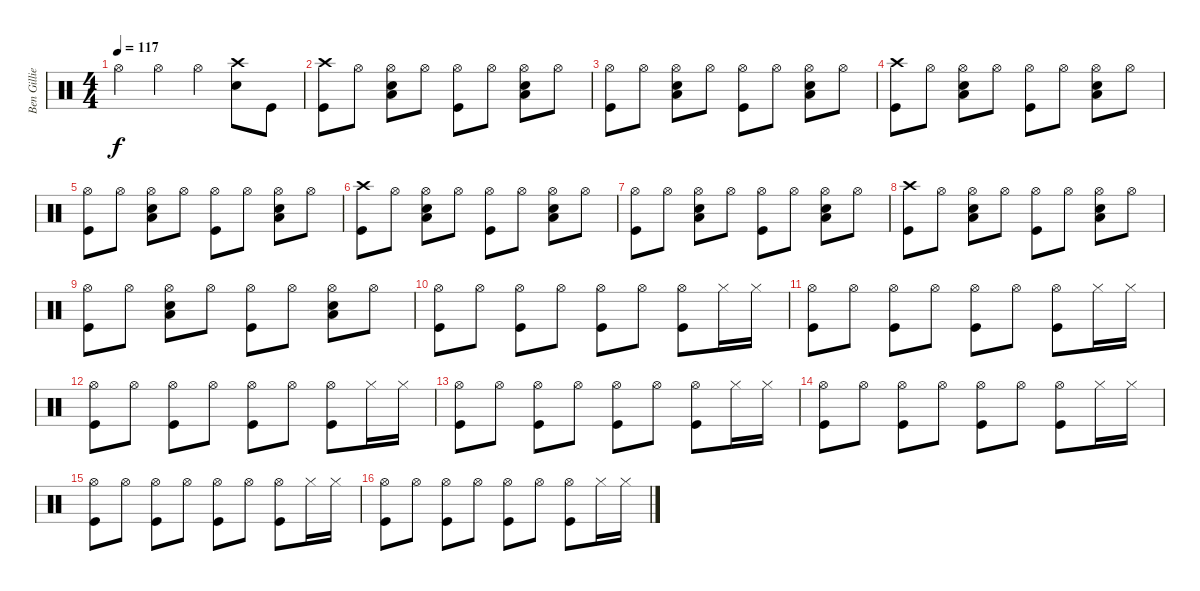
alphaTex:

\track ("Ben Gillies" "Ben Gillie") {instrument percussion}
\staff {score}
\articulation defaults
\ts (4 4)
\tempo 117
\clef neutral
\ks c "Hi-Hat (open)".4{dy f} "Hi-Hat (open)".4 "Hi-Hat (open)".4
("Snare (hit) 2" "Crash high (hit)").8 "Kick (hit)".8 |
("Crash high (hit)" "Kick (hit)").8 "Hi-Hat (open)".8 ("Snare (hit) 2" "Hi-Hat (open)" "Low Tom (hit)").8 "Hi-Hat (open)".8 ("Hi-Hat (open)" "Kick (hit)").8 "Hi-Hat (open)".8 ("Snare (hit) 2" "Hi-Hat (open)" "Low Tom (hit)").8 "Hi-Hat (open)".8 |
("Hi-Hat (open)" "Kick (hit)").8 "Hi-Hat (open)".8 ("Snare (hit) 2" "Hi-Hat (open)" "Low Tom (hit)").8 "Hi-Hat (open)".8 ("Hi-Hat (open)" "Kick (hit)").8 "Hi-Hat (open)".8 ("Snare (hit) 2" "Hi-Hat (open)" "Low Tom (hit)").8 "Hi-Hat (open)".8 |
("Crash high (hit)" "Kick (hit)").8 "Hi-Hat (open)".8 ("Snare (hit) 2" "Hi-Hat (open)" "Low Tom (hit)").8 "Hi-Hat (open)".8 ("Hi-Hat (open)" "Kick (hit)").8 "Hi-Hat (open)".8 ("Snare (hit) 2" "Hi-Hat (open)" "Low Tom (hit)").8 "Hi-Hat (open)".8 |
("Hi-Hat (open)" "Kick (hit)").8 "Hi-Hat (open)".8 ("Snare (hit) 2" "Hi-Hat (open)" "Low Tom (hit)").8 "Hi-Hat (open)".8 ("Hi-Hat (open)" "Kick (hit)").8 "Hi-Hat (open)".8 ("Snare (hit) 2" "Hi-Hat (open)" "Low Tom (hit)").8 "Hi-Hat (open)".8 |
("Crash high (hit)" "Kick (hit)").8 "Hi-Hat (open)".8 ("Snare (hit) 2" "Hi-Hat (open)" "Low Tom (hit)").8 "Hi-Hat (open)".8 ("Hi-Hat (open)" "Kick (hit)").8 "Hi-Hat (open)".8 ("Snare (hit) 2" "Hi-Hat (open)" "Low Tom (hit)").8 "Hi-Hat (open)".8 |
("Hi-Hat (open)" "Kick (hit)").8 "Hi-Hat (open)".8 ("Snare (hit) 2" "Hi-Hat (open)" "Low Tom (hit)").8 "Hi-Hat (open)".8 ("Hi-Hat (open)" "Kick (hit)").8 "Hi-Hat (open)".8 ("Snare (hit) 2" "Hi-Hat (open)" "Low Tom (hit)").8 "Hi-Hat (open)".8 |
("Crash high (hit)" "Kick (hit)").8 "Hi-Hat (open)".8 ("Snare (hit) 2" "Hi-Hat (open)" "Low Tom (hit)").8 "Hi-Hat (open)".8 ("Hi-Hat (open)" "Kick (hit)").8 "Hi-Hat (open)".8 ("Snare (hit) 2" "Hi-Hat (open)" "Low Tom (hit)").8 "Hi-Hat (open)".8 |
("Hi-Hat (open)" "Kick (hit)").8 "Hi-Hat (open)".8 ("Snare (hit) 2" "Hi-Hat (open)" "Low Tom (hit)").8 "Hi-Hat (open)".8 ("Hi-Hat (open)" "Kick (hit)").8 "Hi-Hat (open)".8 ("Snare (hit) 2" "Hi-Hat (open)" "Low Tom (hit)").8 "Hi-Hat (open)".8 |
("Hi-Hat (open)" "Kick (hit)").8 "Hi-Hat (open)".8 ("Hi-Hat (open)" "Kick (hit)").8 "Hi-Hat (open)".8 ("Hi-Hat (open)" "Kick (hit)").8 "Hi-Hat (open)".8 ("Hi-Hat (open)" "Kick (hit)").8 "Hi-Hat (closed)".16 "Hi-Hat (closed)".16 |
("Hi-Hat (open)" "Kick (hit)").8 "Hi-Hat (open)".8 ("Hi-Hat (open)" "Kick (hit)").8 "Hi-Hat (open)".8 ("Hi-Hat (open)" "Kick (hit)").8 "Hi-Hat (open)".8 ("Hi-Hat (open)" "Kick (hit)").8 "Hi-Hat (closed)".16 "Hi-Hat (closed)".16 |
("Hi-Hat (open)" "Kick (hit)").8 "Hi-Hat (open)".8 ("Hi-Hat (open)" "Kick (hit)").8 "Hi-Hat (open)".8 ("Hi-Hat (open)" "Kick (hit)").8 "Hi-Hat (open)".8 ("Hi-Hat (open)" "Kick (hit)").8 "Hi-Hat (closed)".16 "Hi-Hat (closed)".16 |
("Hi-Hat (open)" "Kick (hit)").8 "Hi-Hat (open)".8 ("Hi-Hat (open)" "Kick (hit)").8 "Hi-Hat (open)".8 ("Hi-Hat (open)" "Kick (hit)").8 "Hi-Hat (open)".8 ("Hi-Hat (open)" "Kick (hit)").8 "Hi-Hat (closed)".16 "Hi-Hat (closed)".16 |
("Hi-Hat (open)" "Kick (hit)").8 "Hi-Hat (open)".8 ("Hi-Hat (open)" "Kick (hit)").8 "Hi-Hat (open)".8 ("Hi-Hat (open)" "Kick (hit)").8 "Hi-Hat (open)".8 ("Hi-Hat (open)" "Kick (hit)").8 "Hi-Hat (closed)".16 "Hi-Hat (closed)".16 |
("Hi-Hat (open)" "Kick (hit)").8 "Hi-Hat (open)".8 ("Hi-Hat (open)" "Kick (hit)").8 "Hi-Hat (open)".8 ("Hi-Hat (open)" "Kick (hit)").8 "Hi-Hat (open)".8 ("Hi-Hat (open)" "Kick (hit)").8 "Hi-Hat (closed)".16 "Hi-Hat (closed)".16 |
("Hi-Hat (open)" "Kick (hit)").8 "Hi-Hat (open)".8 ("Hi-Hat (open)" "Kick (hit)").8 "Hi-Hat (open)".8 ("Hi-Hat (open)" "Kick (hit)").8 "Hi-Hat (open)".8 ("Hi-Hat (open)" "Kick (hit)").8 "Hi-Hat (closed)".16 "Hi-Hat (closed)".16
